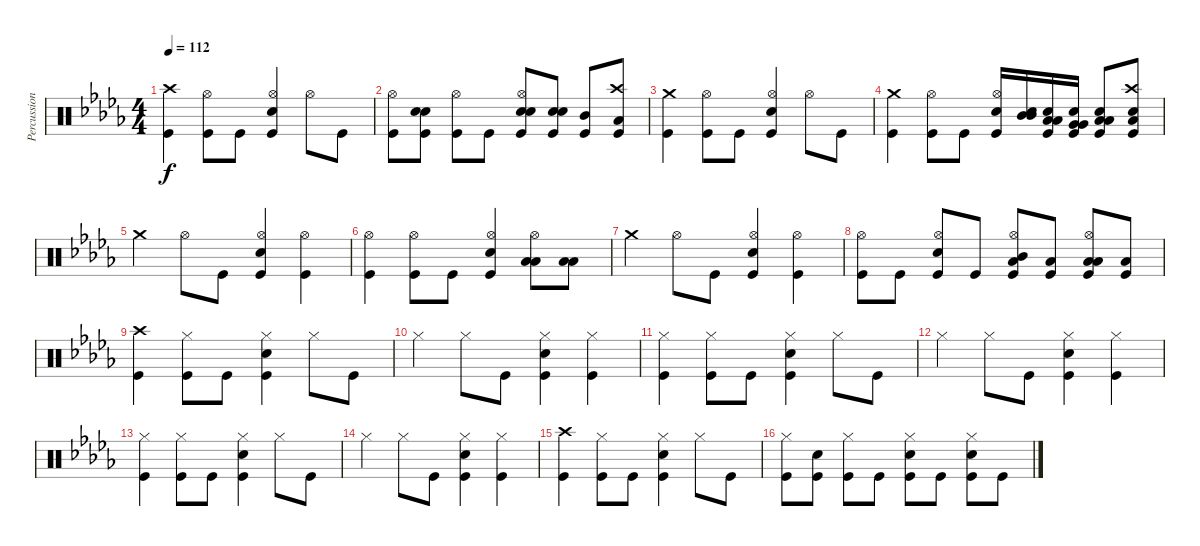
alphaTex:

\track ("Percussion" "Percussion") {instrument percussion}
\staff {score}
\articulation defaults
\ts (4 4)
\tempo 112
\clef neutral
\ks bbminor
("Kick (hit)" "Crash high (hit)").4{dy f} ("Kick (hit)" "Hi-Hat (open)").8 "Kick (hit)".8 ("Kick (hit)" "Snare (hit) 2" "Hi-Hat (open)").4 "Hi-Hat (open)".8 "Kick (hit)".8 |
("Kick (hit)" "Hi-Hat (open)").8 ("Kick (hit)" "Snare (hit) 2" "Snare (hit) 2").8 ("Kick (hit)" "Hi-Hat (open)").8 "Kick (hit)".8 ("Kick (hit)" "Snare (hit) 2" "Snare (hit) 2" "Hi-Hat (open)").8 ("Kick (hit)" "Snare (hit) 2" "Snare (hit) 2").8 ("Kick (hit)" "Mid Tom (hit)").8 ("Kick (hit)" "Low Tom (hit)" "Crash high (hit)").8 |
("Kick (hit)" "Crash medium (hit)").4 ("Kick (hit)" "Hi-Hat (open)").8 "Kick (hit)".8 ("Kick (hit)" "Snare (hit) 2" "Hi-Hat (open)").4 "Hi-Hat (open)".8 "Kick (hit)".8 |
("Kick (hit)" "Crash medium (hit)").4 ("Kick (hit)" "Hi-Hat (open)").8 "Kick (hit)".8 ("Kick (hit)" "Snare (hit) 2" "Hi-Hat (open)").16 ("Snare (hit) 2" "Mid Tom (hit)" "Mid Tom (hit)").16 ("Kick (hit)" "Snare (hit) 2" "Low Tom (hit)" "Low Tom (hit)").16 ("Kick (hit)" "Snare (hit) 2" "Very Low Tom (hit)" "Very Low Tom (hit)").16 ("Kick (hit)" "Snare (hit) 2" "Low Floor Tom (hit)" "Low Floor Tom (hit)").8 ("Kick (hit)" "Snare (hit) 2" "Crash high (hit)" "Low Floor Tom (hit)").8 |
"Crash medium (hit)".4 "Hi-Hat (open)".8 "Kick (hit)".8 ("Kick (hit)" "Snare (hit) 2" "Hi-Hat (open)").4 ("Kick (hit)" "Hi-Hat (open)").4 |
("Kick (hit)" "Hi-Hat (open)").4 ("Kick (hit)" "Hi-Hat (open)").8 "Kick (hit)".8 ("Kick (hit)" "Snare (hit) 2" "Hi-Hat (open)").4 ("Low Floor Tom (hit)" "Low Floor Tom (hit)" "Hi-Hat (open)").8 ("Low Floor Tom (hit)" "Low Floor Tom (hit)").8 |
"Crash medium (hit)".4 "Hi-Hat (open)".8 "Kick (hit)".8 ("Kick (hit)" "Snare (hit) 2" "Hi-Hat (open)").4 ("Kick (hit)" "Hi-Hat (open)").4 |
("Kick (hit)" "Hi-Hat (open)").8 "Kick (hit)".8 ("Kick (hit)" "Snare (hit) 2" "Hi-Hat (open)").8 "Kick (hit)".8 ("Kick (hit)" "Mid Tom (hit)" "Low Floor Tom (hit)" "Hi-Hat (open)").8 ("Kick (hit)" "Low Floor Tom (hit)").8 ("Kick (hit)" "Low Tom (hit)" "Low Floor Tom (hit)" "Hi-Hat (open)").8 ("Kick (hit)" "Low Floor Tom (hit)").8 |
("Kick (hit)" "Crash high (hit)").4 ("Kick (hit)" "Hi-Hat (closed)").8 "Kick (hit)".8 ("Kick (hit)" "Snare (hit) 2" "Hi-Hat (closed)").4 "Hi-Hat (closed)".8 "Kick (hit)".8 |
"Hi-Hat (closed)".4 "Hi-Hat (closed)".8 "Kick (hit)".8 ("Kick (hit)" "Snare (hit) 2" "Hi-Hat (closed)").4 ("Kick (hit)" "Hi-Hat (closed)").4 |
("Kick (hit)" "Hi-Hat (closed)").4 ("Kick (hit)" "Hi-Hat (closed)").8 "Kick (hit)".8 ("Kick (hit)" "Snare (hit) 2" "Hi-Hat (closed)").4 "Hi-Hat (closed)".8 "Kick (hit)".8 |
"Hi-Hat (closed)".4 "Hi-Hat (closed)".8 "Kick (hit)".8 ("Kick (hit)" "Snare (hit) 2" "Hi-Hat (closed)").4 ("Kick (hit)" "Hi-Hat (closed)").4 |
("Kick (hit)" "Hi-Hat (closed)").4 ("Kick (hit)" "Hi-Hat (closed)").8 "Kick (hit)".8 ("Kick (hit)" "Snare (hit) 2" "Hi-Hat (closed)").4 "Hi-Hat (closed)".8 "Kick (hit)".8 |
"Hi-Hat (closed)".4 "Hi-Hat (closed)".8 "Kick (hit)".8 ("Kick (hit)" "Snare (hit) 2" "Hi-Hat (closed)").4 ("Kick (hit)" "Hi-Hat (closed)").4 |
("Kick (hit)" "Crash high (hit)").4 ("Kick (hit)" "Hi-Hat (closed)").8 "Kick (hit)".8 ("Kick (hit)" "Snare (hit) 2" "Hi-Hat (closed)").4 "Hi-Hat (closed)".8 "Kick (hit)".8 |
("Kick (hit)" "Hi-Hat (closed)").8 ("Kick (hit)" "Snare (hit) 2").8 ("Kick (hit)" "Hi-Hat (closed)").8 "Kick (hit)".8 ("Kick (hit)" "Snare (hit) 2" "Hi-Hat (closed)").8 "Kick (hit)".8 ("Kick (hit)" "Snare (hit) 2" "Hi-Hat (closed)").8 "Kick (hit)".8
